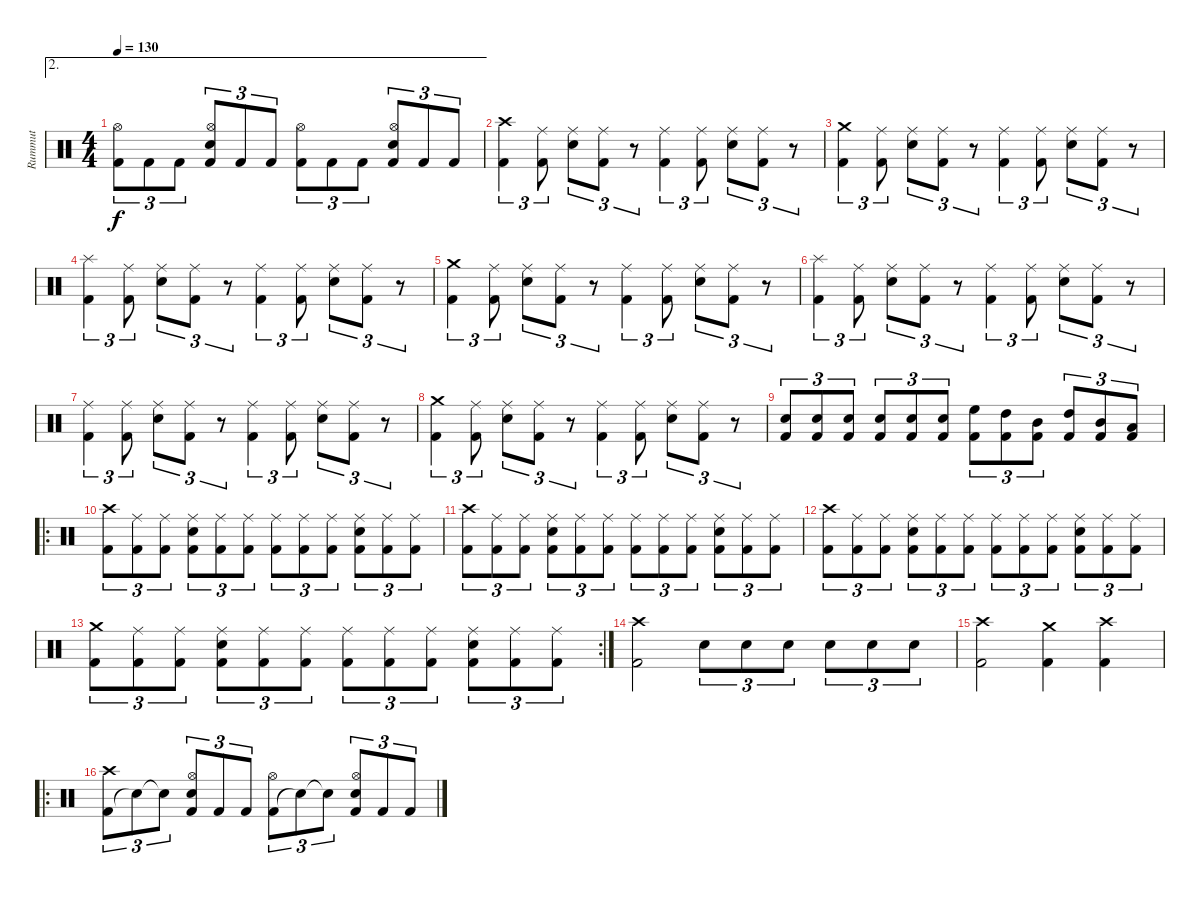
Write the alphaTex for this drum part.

\track ("Rummut" "Rummut") {instrument percussion}
\staff {score}
\articulation defaults
\ae 2
\ts (4 4)
\tempo 130
\clef neutral
\ks c
("Kick (hit) 2" "Hi-Hat (open)").8{tu (3 2) dy f} "Kick (hit) 2".8{tu (3 2)} "Kick (hit) 2".8{tu (3 2)} ("Kick (hit) 2" "Electric Snare (hit)" "Hi-Hat (open)").8{tu (3 2)} "Kick (hit) 2".8{tu (3 2)} "Kick (hit) 2".8{tu (3 2)} ("Kick (hit) 2" "Hi-Hat (open)").8{tu (3 2)} "Kick (hit) 2".8{tu (3 2)} "Kick (hit) 2".8{tu (3 2)} ("Kick (hit) 2" "Electric Snare (hit)" "Hi-Hat (open)").8{tu (3 2)} "Kick (hit) 2".8{tu (3 2)} "Kick (hit) 2".8{tu (3 2)} |
("Kick (hit) 2" "Crash high (hit)").4{tu (3 2)} ("Kick (hit) 2" "Ride (middle)").8{tu (3 2)} ("Electric Snare (hit)" "Ride (middle)").8{tu (3 2)} ("Kick (hit) 2" "Ride (middle)").8{tu (3 2)} r.8{tu (3 2)} ("Kick (hit) 2" "Ride (middle)").4{tu (3 2)} ("Kick (hit) 2" "Ride (middle)").8{tu (3 2)} ("Electric Snare (hit)" "Ride (middle)").8{tu (3 2)} ("Kick (hit) 2" "Ride (middle)").8{tu (3 2)} r.8{tu (3 2)} |
("Kick (hit) 2" "Crash medium (hit)").4{tu (3 2)} ("Kick (hit) 2" "Ride (middle)").8{tu (3 2)} ("Electric Snare (hit)" "Ride (middle)").8{tu (3 2)} ("Kick (hit) 2" "Ride (middle)").8{tu (3 2)} r.8{tu (3 2)} ("Kick (hit) 2" "Ride (middle)").4{tu (3 2)} ("Kick (hit) 2" "Ride (middle)").8{tu (3 2)} ("Electric Snare (hit)" "Ride (middle)").8{tu (3 2)} ("Kick (hit) 2" "Ride (middle)").8{tu (3 2)} r.8{tu (3 2)} |
("Kick (hit) 2" "Splash (hit)").4{tu (3 2)} ("Kick (hit) 2" "Ride (middle)").8{tu (3 2)} ("Electric Snare (hit)" "Ride (middle)").8{tu (3 2)} ("Kick (hit) 2" "Ride (middle)").8{tu (3 2)} r.8{tu (3 2)} ("Kick (hit) 2" "Ride (middle)").4{tu (3 2)} ("Kick (hit) 2" "Ride (middle)").8{tu (3 2)} ("Electric Snare (hit)" "Ride (middle)").8{tu (3 2)} ("Kick (hit) 2" "Ride (middle)").8{tu (3 2)} r.8{tu (3 2)} |
("Kick (hit) 2" "Crash medium (hit)").4{tu (3 2)} ("Kick (hit) 2" "Ride (middle)").8{tu (3 2)} ("Electric Snare (hit)" "Ride (middle)").8{tu (3 2)} ("Kick (hit) 2" "Ride (middle)").8{tu (3 2)} r.8{tu (3 2)} ("Kick (hit) 2" "Ride (middle)").4{tu (3 2)} ("Kick (hit) 2" "Ride (middle)").8{tu (3 2)} ("Electric Snare (hit)" "Ride (middle)").8{tu (3 2)} ("Kick (hit) 2" "Ride (middle)").8{tu (3 2)} r.8{tu (3 2)} |
("Kick (hit) 2" "Splash (hit)").4{tu (3 2)} ("Kick (hit) 2" "Ride (middle)").8{tu (3 2)} ("Electric Snare (hit)" "Ride (middle)").8{tu (3 2)} ("Kick (hit) 2" "Ride (middle)").8{tu (3 2)} r.8{tu (3 2)} ("Kick (hit) 2" "Ride (middle)").4{tu (3 2)} ("Kick (hit) 2" "Ride (middle)").8{tu (3 2)} ("Electric Snare (hit)" "Ride (middle)").8{tu (3 2)} ("Kick (hit) 2" "Ride (middle)").8{tu (3 2)} r.8{tu (3 2)} |
("Kick (hit) 2" "Ride (middle)").4{tu (3 2)} ("Kick (hit) 2" "Ride (middle)").8{tu (3 2)} ("Electric Snare (hit)" "Ride (middle)").8{tu (3 2)} ("Kick (hit) 2" "Ride (middle)").8{tu (3 2)} r.8{tu (3 2)} ("Kick (hit) 2" "Ride (middle)").4{tu (3 2)} ("Kick (hit) 2" "Ride (middle)").8{tu (3 2)} ("Electric Snare (hit)" "Ride (middle)").8{tu (3 2)} ("Kick (hit) 2" "Ride (middle)").8{tu (3 2)} r.8{tu (3 2)} |
("Kick (hit) 2" "Crash medium (hit)").4{tu (3 2)} ("Kick (hit) 2" "Ride (middle)").8{tu (3 2)} ("Electric Snare (hit)" "Ride (middle)").8{tu (3 2)} ("Kick (hit) 2" "Ride (middle)").8{tu (3 2)} r.8{tu (3 2)} ("Kick (hit) 2" "Ride (middle)").4{tu (3 2)} ("Kick (hit) 2" "Ride (middle)").8{tu (3 2)} ("Electric Snare (hit)" "Ride (middle)").8{tu (3 2)} ("Kick (hit) 2" "Ride (middle)").8{tu (3 2)} r.8{tu (3 2)} |
("Electric Snare (hit)" "Kick (hit) 2").8{tu (3 2)} ("Electric Snare (hit)" "Kick (hit) 2").8{tu (3 2)} ("Electric Snare (hit)" "Kick (hit) 2").8{tu (3 2)} ("Electric Snare (hit)" "Kick (hit) 2").8{tu (3 2)} ("Electric Snare (hit)" "Kick (hit) 2").8{tu (3 2)} ("Electric Snare (hit)" "Kick (hit) 2").8{tu (3 2)} ("High Floor Tom (hit)" "Kick (hit) 2").8{tu (3 2)} ("High Tom (hit)" "Kick (hit) 2").8{tu (3 2)} ("Mid Tom (hit)" "Kick (hit) 2").8{tu (3 2)} ("High Tom (hit)" "Kick (hit) 2").8{tu (3 2)} ("Mid Tom (hit)" "Kick (hit) 2").8{tu (3 2)} ("Low Tom (hit)" "Kick (hit) 2").8{tu (3 2)} |
\ro
("Kick (hit) 2" "Crash high (hit)").8{tu (3 2)} ("Kick (hit) 2" "Ride (middle)").8{tu (3 2)} ("Kick (hit) 2" "Ride (middle)").8{tu (3 2)} ("Kick (hit) 2" "Electric Snare (hit)" "Ride (middle)").8{tu (3 2)} ("Kick (hit) 2" "Ride (middle)").8{tu (3 2)} ("Kick (hit) 2" "Ride (middle)").8{tu (3 2)} ("Kick (hit) 2" "Ride (middle)").8{tu (3 2)} ("Kick (hit) 2" "Ride (middle)").8{tu (3 2)} ("Kick (hit) 2" "Ride (middle)").8{tu (3 2)} ("Kick (hit) 2" "Electric Snare (hit)" "Ride (middle)").8{tu (3 2)} ("Kick (hit) 2" "Ride (middle)").8{tu (3 2)} ("Kick (hit) 2" "Ride (middle)").8{tu (3 2)} |
("Kick (hit) 2" "Crash high (hit)").8{tu (3 2)} ("Kick (hit) 2" "Ride (middle)").8{tu (3 2)} ("Kick (hit) 2" "Ride (middle)").8{tu (3 2)} ("Kick (hit) 2" "Electric Snare (hit)" "Ride (middle)").8{tu (3 2)} ("Kick (hit) 2" "Ride (middle)").8{tu (3 2)} ("Kick (hit) 2" "Ride (middle)").8{tu (3 2)} ("Kick (hit) 2" "Ride (middle)").8{tu (3 2)} ("Kick (hit) 2" "Ride (middle)").8{tu (3 2)} ("Kick (hit) 2" "Ride (middle)").8{tu (3 2)} ("Kick (hit) 2" "Electric Snare (hit)" "Ride (middle)").8{tu (3 2)} ("Kick (hit) 2" "Ride (middle)").8{tu (3 2)} ("Kick (hit) 2" "Ride (middle)").8{tu (3 2)} |
("Kick (hit) 2" "Crash high (hit)").8{tu (3 2)} ("Kick (hit) 2" "Ride (middle)").8{tu (3 2)} ("Kick (hit) 2" "Ride (middle)").8{tu (3 2)} ("Kick (hit) 2" "Electric Snare (hit)" "Ride (middle)").8{tu (3 2)} ("Kick (hit) 2" "Ride (middle)").8{tu (3 2)} ("Kick (hit) 2" "Ride (middle)").8{tu (3 2)} ("Kick (hit) 2" "Ride (middle)").8{tu (3 2)} ("Kick (hit) 2" "Ride (middle)").8{tu (3 2)} ("Kick (hit) 2" "Ride (middle)").8{tu (3 2)} ("Kick (hit) 2" "Electric Snare (hit)" "Ride (middle)").8{tu (3 2)} ("Kick (hit) 2" "Ride (middle)").8{tu (3 2)} ("Kick (hit) 2" "Ride (middle)").8{tu (3 2)} |
\rc 2
("Kick (hit) 2" "Crash medium (hit)").8{tu (3 2)} ("Kick (hit) 2" "Ride (middle)").8{tu (3 2)} ("Kick (hit) 2" "Ride (middle)").8{tu (3 2)} ("Kick (hit) 2" "Electric Snare (hit)" "Ride (middle)").8{tu (3 2)} ("Kick (hit) 2" "Ride (middle)").8{tu (3 2)} ("Kick (hit) 2" "Ride (middle)").8{tu (3 2)} ("Kick (hit) 2" "Ride (middle)").8{tu (3 2)} ("Kick (hit) 2" "Ride (middle)").8{tu (3 2)} ("Kick (hit) 2" "Ride (middle)").8{tu (3 2)} ("Kick (hit) 2" "Electric Snare (hit)" "Ride (middle)").8{tu (3 2)} ("Kick (hit) 2" "Ride (middle)").8{tu (3 2)} ("Kick (hit) 2" "Ride (middle)").8{tu (3 2)} |
("Crash high (hit)" "Kick (hit) 2").2 "Electric Snare (hit)".8{tu (3 2)} "Electric Snare (hit)".8{tu (3 2)} "Electric Snare (hit)".8{tu (3 2)} "Electric Snare (hit)".8{tu (3 2)} "Electric Snare (hit)".8{tu (3 2)} "Electric Snare (hit)".8{tu (3 2)} |
("Crash high (hit)" "Kick (hit) 2").2 ("Crash medium (hit)" "Kick (hit) 2").4 ("Crash high (hit)" "Kick (hit) 2").4 |
\ro
("Kick (hit) 2" "Crash high (hit)").8{tu (3 2)} "Snare (hit)"{t}.8{tu (3 2)} "Snare (hit)"{t}.8{tu (3 2)} ("Kick (hit) 2" "Electric Snare (hit)" "Hi-Hat (open)").8{tu (3 2)} "Kick (hit) 2".8{tu (3 2)} "Kick (hit) 2".8{tu (3 2)} ("Kick (hit) 2" "Hi-Hat (open)").8{tu (3 2)} "Snare (hit)"{t}.8{tu (3 2)} "Snare (hit)"{t}.8{tu (3 2)} ("Kick (hit) 2" "Electric Snare (hit)" "Hi-Hat (open)").8{tu (3 2)} "Kick (hit) 2".8{tu (3 2)} "Kick (hit) 2".8{tu (3 2)}
